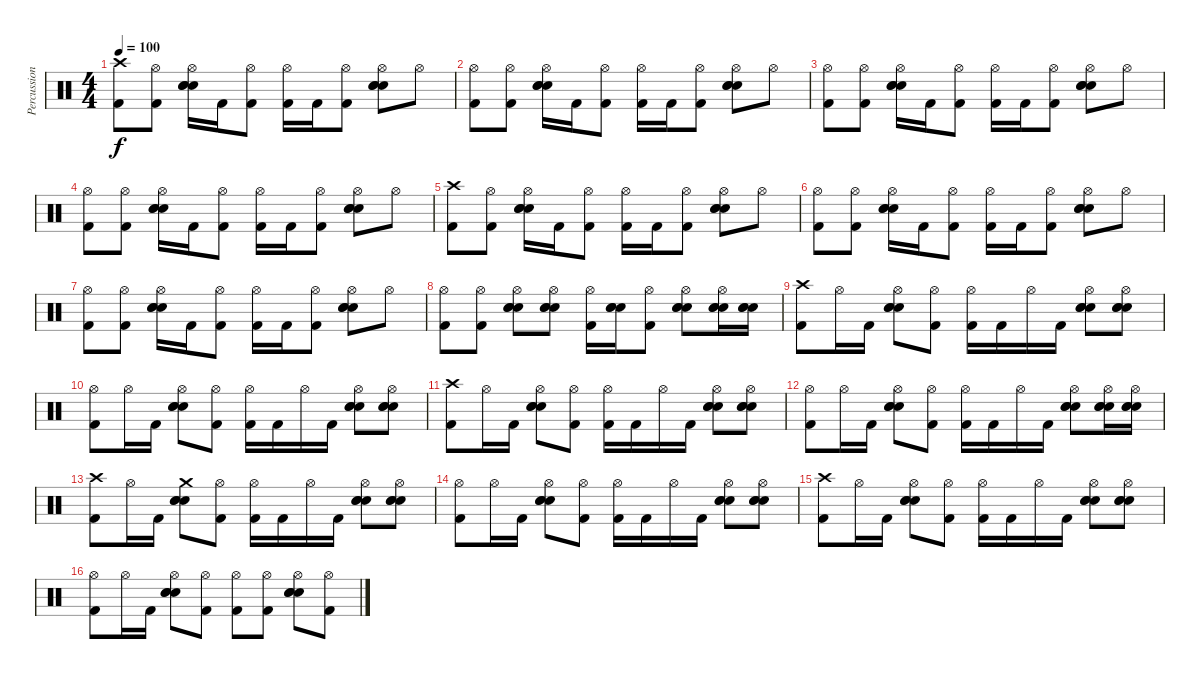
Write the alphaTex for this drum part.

\track ("Percussions" "Percussion") {instrument percussion}
\staff {score}
\articulation defaults
\ts (4 4)
\tempo 100
\clef neutral
\ks c
("Crash high (hit)" "Kick (hit) 2").8{dy f} ("Hi-Hat (open)" "Kick (hit) 2").8 ("Hi-Hat (open)" "Snare (hit) 2" "Electric Snare (hit)" "Electric Snare (hit)").16 "Kick (hit) 2".16 ("Hi-Hat (open)" "Kick (hit) 2").8 ("Hi-Hat (open)" "Kick (hit) 2").16 "Kick (hit) 2".16 ("Hi-Hat (open)" "Kick (hit) 2").8 ("Hi-Hat (open)" "Snare (hit) 2" "Electric Snare (hit)" "Electric Snare (hit)").8 "Hi-Hat (open)".8 |
("Hi-Hat (open)" "Kick (hit) 2").8 ("Hi-Hat (open)" "Kick (hit) 2").8 ("Hi-Hat (open)" "Snare (hit) 2" "Electric Snare (hit)" "Electric Snare (hit)").16 "Kick (hit) 2".16 ("Hi-Hat (open)" "Kick (hit) 2").8 ("Hi-Hat (open)" "Kick (hit) 2").16 "Kick (hit) 2".16 ("Hi-Hat (open)" "Kick (hit) 2").8 ("Hi-Hat (open)" "Snare (hit) 2" "Electric Snare (hit)" "Electric Snare (hit)").8 "Hi-Hat (open)".8 |
("Hi-Hat (open)" "Kick (hit) 2").8 ("Hi-Hat (open)" "Kick (hit) 2").8 ("Hi-Hat (open)" "Snare (hit) 2" "Electric Snare (hit)" "Electric Snare (hit)").16 "Kick (hit) 2".16 ("Hi-Hat (open)" "Kick (hit) 2").8 ("Hi-Hat (open)" "Kick (hit) 2").16 "Kick (hit) 2".16 ("Hi-Hat (open)" "Kick (hit) 2").8 ("Hi-Hat (open)" "Snare (hit) 2" "Electric Snare (hit)" "Electric Snare (hit)").8 "Hi-Hat (open)".8 |
("Hi-Hat (open)" "Kick (hit) 2").8 ("Hi-Hat (open)" "Kick (hit) 2").8 ("Hi-Hat (open)" "Snare (hit) 2" "Electric Snare (hit)" "Electric Snare (hit)").16 "Kick (hit) 2".16 ("Hi-Hat (open)" "Kick (hit) 2").8 ("Hi-Hat (open)" "Kick (hit) 2").16 "Kick (hit) 2".16 ("Hi-Hat (open)" "Kick (hit) 2").8 ("Hi-Hat (open)" "Snare (hit) 2" "Electric Snare (hit)" "Electric Snare (hit)").8 "Hi-Hat (open)".8 |
("Crash high (hit)" "Kick (hit) 2").8 ("Hi-Hat (open)" "Kick (hit) 2").8 ("Hi-Hat (open)" "Snare (hit) 2" "Electric Snare (hit)" "Electric Snare (hit)").16 "Kick (hit) 2".16 ("Hi-Hat (open)" "Kick (hit) 2").8 ("Hi-Hat (open)" "Kick (hit) 2").16 "Kick (hit) 2".16 ("Hi-Hat (open)" "Kick (hit) 2").8 ("Hi-Hat (open)" "Snare (hit) 2" "Electric Snare (hit)" "Electric Snare (hit)").8 "Hi-Hat (open)".8 |
("Hi-Hat (open)" "Kick (hit) 2").8 ("Hi-Hat (open)" "Kick (hit) 2").8 ("Hi-Hat (open)" "Snare (hit) 2" "Electric Snare (hit)" "Electric Snare (hit)").16 "Kick (hit) 2".16 ("Hi-Hat (open)" "Kick (hit) 2").8 ("Hi-Hat (open)" "Kick (hit) 2").16 "Kick (hit) 2".16 ("Hi-Hat (open)" "Kick (hit) 2").8 ("Hi-Hat (open)" "Snare (hit) 2" "Electric Snare (hit)" "Electric Snare (hit)").8 "Hi-Hat (open)".8 |
("Hi-Hat (open)" "Kick (hit) 2").8 ("Hi-Hat (open)" "Kick (hit) 2").8 ("Hi-Hat (open)" "Snare (hit) 2" "Electric Snare (hit)" "Electric Snare (hit)").16 "Kick (hit) 2".16 ("Hi-Hat (open)" "Kick (hit) 2").8 ("Hi-Hat (open)" "Kick (hit) 2").16 "Kick (hit) 2".16 ("Hi-Hat (open)" "Kick (hit) 2").8 ("Hi-Hat (open)" "Snare (hit) 2" "Electric Snare (hit)" "Electric Snare (hit)").8 "Hi-Hat (open)".8 |
("Hi-Hat (open)" "Kick (hit) 2").8 ("Hi-Hat (open)" "Kick (hit) 2").8 ("Hi-Hat (open)" "Snare (hit) 2" "Electric Snare (hit)" "Electric Snare (hit)").8 ("Hi-Hat (open)" "Snare (hit) 2" "Electric Snare (hit)" "Electric Snare (hit)").8 ("Hi-Hat (open)" "Kick (hit) 2").16 ("Snare (hit) 2" "Electric Snare (hit)" "Electric Snare (hit)").16 ("Hi-Hat (open)" "Kick (hit) 2").8 ("Hi-Hat (open)" "Snare (hit) 2" "Electric Snare (hit)" "Electric Snare (hit)").8 ("Hi-Hat (open)" "Snare (hit) 2" "Electric Snare (hit)" "Electric Snare (hit)").16 ("Snare (hit) 2" "Electric Snare (hit)" "Electric Snare (hit)").16 |
("Crash high (hit)" "Kick (hit) 2").8 "Hi-Hat (open)".16 "Kick (hit) 2".16 ("Hi-Hat (open)" "Snare (hit) 2" "Electric Snare (hit)" "Electric Snare (hit)").8 ("Hi-Hat (open)" "Kick (hit) 2").8 ("Hi-Hat (open)" "Kick (hit) 2").16 "Kick (hit) 2".16 "Hi-Hat (open)".16 "Kick (hit) 2".16 ("Hi-Hat (open)" "Snare (hit) 2" "Electric Snare (hit)" "Electric Snare (hit)").8 ("Hi-Hat (open)" "Snare (hit) 2" "Electric Snare (hit)" "Electric Snare (hit)").8 |
("Hi-Hat (open)" "Kick (hit) 2").8 "Hi-Hat (open)".16 "Kick (hit) 2".16 ("Hi-Hat (open)" "Snare (hit) 2" "Electric Snare (hit)" "Electric Snare (hit)").8 ("Hi-Hat (open)" "Kick (hit) 2").8 ("Hi-Hat (open)" "Kick (hit) 2").16 "Kick (hit) 2".16 "Hi-Hat (open)".16 "Kick (hit) 2".16 ("Hi-Hat (open)" "Snare (hit) 2" "Electric Snare (hit)" "Electric Snare (hit)").8 ("Hi-Hat (open)" "Snare (hit) 2" "Electric Snare (hit)" "Electric Snare (hit)").8 |
("Crash high (hit)" "Kick (hit) 2").8 "Hi-Hat (open)".16 "Kick (hit) 2".16 ("Hi-Hat (open)" "Snare (hit) 2" "Electric Snare (hit)" "Electric Snare (hit)").8 ("Hi-Hat (open)" "Kick (hit) 2").8 ("Hi-Hat (open)" "Kick (hit) 2").16 "Kick (hit) 2".16 "Hi-Hat (open)".16 "Kick (hit) 2".16 ("Hi-Hat (open)" "Snare (hit) 2" "Electric Snare (hit)" "Electric Snare (hit)").8 ("Hi-Hat (open)" "Snare (hit) 2" "Electric Snare (hit)" "Electric Snare (hit)").8 |
("Hi-Hat (open)" "Kick (hit) 2").8 "Hi-Hat (open)".16 "Kick (hit) 2".16 ("Hi-Hat (open)" "Snare (hit) 2" "Electric Snare (hit)" "Electric Snare (hit)").8 ("Hi-Hat (open)" "Kick (hit) 2").8 ("Hi-Hat (open)" "Kick (hit) 2").16 "Kick (hit) 2".16 "Hi-Hat (open)".16 "Kick (hit) 2".16 ("Hi-Hat (open)" "Snare (hit) 2" "Electric Snare (hit)" "Electric Snare (hit)").8 ("Hi-Hat (open)" "Snare (hit) 2" "Electric Snare (hit)" "Electric Snare (hit)").16 ("Hi-Hat (open)" "Snare (hit) 2" "Electric Snare (hit)" "Electric Snare (hit)").16 |
("Crash high (hit)" "Kick (hit) 2").8 "Hi-Hat (open)".16 "Kick (hit) 2".16 ("Crash medium (hit)" "Snare (hit) 2" "Electric Snare (hit)" "Electric Snare (hit)").8 ("Hi-Hat (open)" "Kick (hit) 2").8 ("Hi-Hat (open)" "Kick (hit) 2").16 "Kick (hit) 2".16 "Hi-Hat (open)".16 "Kick (hit) 2".16 ("Hi-Hat (open)" "Snare (hit) 2" "Electric Snare (hit)" "Electric Snare (hit)").8 ("Hi-Hat (open)" "Snare (hit) 2" "Electric Snare (hit)" "Electric Snare (hit)").8 |
("Hi-Hat (open)" "Kick (hit) 2").8 "Hi-Hat (open)".16 "Kick (hit) 2".16 ("Hi-Hat (open)" "Snare (hit) 2" "Electric Snare (hit)" "Electric Snare (hit)").8 ("Hi-Hat (open)" "Kick (hit) 2").8 ("Hi-Hat (open)" "Kick (hit) 2").16 "Kick (hit) 2".16 "Hi-Hat (open)".16 "Kick (hit) 2".16 ("Hi-Hat (open)" "Snare (hit) 2" "Electric Snare (hit)" "Electric Snare (hit)").8 ("Hi-Hat (open)" "Snare (hit) 2" "Electric Snare (hit)" "Electric Snare (hit)").8 |
("Crash high (hit)" "Kick (hit) 2").8 "Hi-Hat (open)".16 "Kick (hit) 2".16 ("Hi-Hat (open)" "Snare (hit) 2" "Electric Snare (hit)" "Electric Snare (hit)").8 ("Hi-Hat (open)" "Kick (hit) 2").8 ("Hi-Hat (open)" "Kick (hit) 2").16 "Kick (hit) 2".16 "Hi-Hat (open)".16 "Kick (hit) 2".16 ("Hi-Hat (open)" "Snare (hit) 2" "Electric Snare (hit)" "Electric Snare (hit)").8 ("Hi-Hat (open)" "Snare (hit) 2" "Electric Snare (hit)" "Electric Snare (hit)").8 |
("Hi-Hat (open)" "Kick (hit) 2").8 "Hi-Hat (open)".16 "Kick (hit) 2".16 ("Hi-Hat (open)" "Snare (hit) 2" "Electric Snare (hit)" "Electric Snare (hit)").8 ("Hi-Hat (open)" "Kick (hit) 2").8 ("Hi-Hat (open)" "Kick (hit) 2").8 ("Hi-Hat (open)" "Kick (hit) 2").8 ("Hi-Hat (open)" "Snare (hit) 2" "Electric Snare (hit)" "Electric Snare (hit)").8 ("Hi-Hat (open)" "Kick (hit) 2").8
